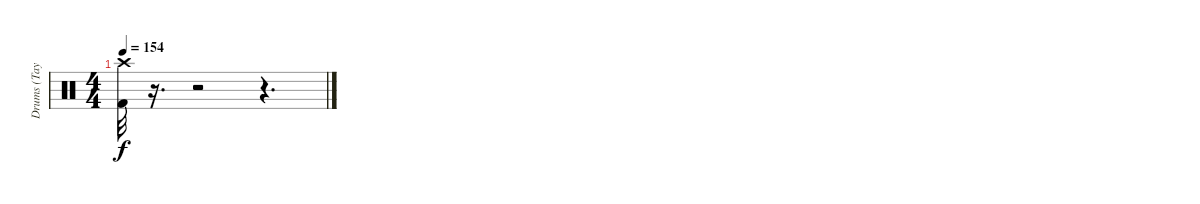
\track ("Drums (Taylor)" "Drums (Tay") {instrument percussion}
\staff {score}
\articulation defaults
\ts (4 4)
\tempo 154
\clef neutral
\ks c
("Crash high (hit)" "Kick (hit) 2").32{dy f volume 16} r.16{d} r.2{volume 0} r.4{d}
